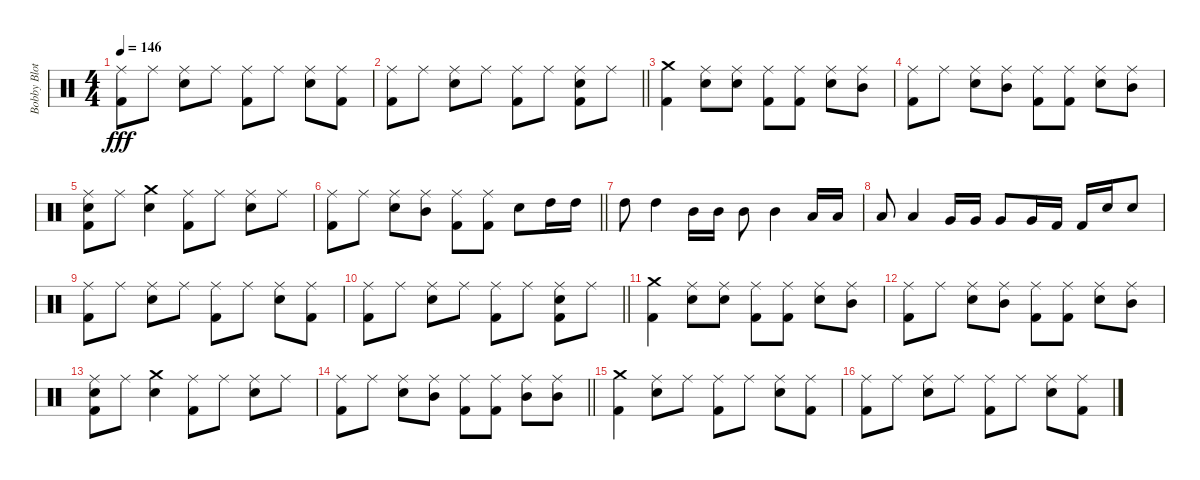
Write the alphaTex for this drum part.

\track ("Bobby Blotzer - Drums" "Bobby Blot") {instrument percussion}
\staff {score}
\articulation defaults
\ts (4 4)
\tempo 146
\clef neutral
\ks c
("Ride (middle)" "Kick (hit) 2").8{dy fff} "Ride (middle)".8 ("Ride (middle)" "Snare (hit) 2").8 "Ride (middle)".8 ("Ride (middle)" "Kick (hit) 2").8 "Ride (middle)".8 ("Ride (middle)" "Snare (hit) 2").8 ("Ride (middle)" "Kick (hit) 2").8 |
\barLineRight lightlight
("Ride (middle)" "Kick (hit) 2").8 "Ride (middle)".8 ("Ride (middle)" "Snare (hit) 2").8 "Ride (middle)".8 ("Ride (middle)" "Kick (hit) 2").8 "Ride (middle)".8 ("Ride (middle)" "Snare (hit) 2" "Kick (hit) 2").8 "Ride (middle)".8 |
("Crash medium (hit)" "Kick (hit) 2").4 ("Ride (middle)" "Snare (hit) 2").8 ("Ride (middle)" "Snare (hit) 2").8 ("Ride (middle)" "Kick (hit) 2").8 ("Ride (middle)" "Kick (hit) 2").8 ("Ride (middle)" "Snare (hit) 2").8 ("Ride (middle)" "Mid Tom (hit)").8 |
("Ride (middle)" "Kick (hit) 2").8 "Ride (middle)".8 ("Ride (middle)" "Snare (hit) 2").8 ("Ride (middle)" "Mid Tom (hit)").8 ("Ride (middle)" "Kick (hit) 2").8 ("Ride (middle)" "Kick (hit) 2").8 ("Ride (middle)" "Snare (hit) 2").8 ("Ride (middle)" "Mid Tom (hit)").8 |
("Ride (middle)" "Snare (hit) 2" "Kick (hit) 2").8 "Ride (middle)".8 ("Crash medium (hit)" "Snare (hit) 2").4 ("Ride (middle)" "Kick (hit) 2").8 "Ride (middle)".8 ("Ride (middle)" "Snare (hit) 2").8 "Ride (middle)".8 |
\barLineRight lightlight
("Ride (middle)" "Kick (hit) 2").8 "Ride (middle)".8 ("Ride (middle)" "Snare (hit) 2").8 ("Ride (middle)" "Mid Tom (hit)").8 ("Ride (middle)" "Kick (hit) 2").8 ("Ride (middle)" "Kick (hit) 2").8 "Snare (hit) 2".8 "High Tom (hit)".16 "High Tom (hit)".16 |
"High Tom (hit)".8{volume 8} "High Tom (hit)".4 "Mid Tom (hit)".16 "Mid Tom (hit)".16 "Mid Tom (hit)".8 "Mid Tom (hit)".4 "Low Tom (hit)".16 "Low Tom (hit)".16 |
"Low Tom (hit)".8 "Low Tom (hit)".4 "Very Low Tom (hit)".16 "Very Low Tom (hit)".16 "Very Low Tom (hit)".8 "Very Low Tom (hit)".16 "Kick (hit) 2".16 "Kick (hit) 2".16 "Snare (hit) 2".16 "Snare (hit) 2".8 |
("Ride (middle)" "Kick (hit) 2").8 "Ride (middle)".8 ("Ride (middle)" "Snare (hit) 2").8 "Ride (middle)".8 ("Ride (middle)" "Kick (hit) 2").8 "Ride (middle)".8 ("Ride (middle)" "Snare (hit) 2").8 ("Ride (middle)" "Kick (hit) 2").8 |
\barLineRight lightlight
("Ride (middle)" "Kick (hit) 2").8 "Ride (middle)".8 ("Ride (middle)" "Snare (hit) 2").8 "Ride (middle)".8 ("Ride (middle)" "Kick (hit) 2").8 "Ride (middle)".8 ("Ride (middle)" "Snare (hit) 2" "Kick (hit) 2").8 "Ride (middle)".8 |
("Crash medium (hit)" "Kick (hit) 2").4 ("Ride (middle)" "Snare (hit) 2").8 ("Ride (middle)" "Snare (hit) 2").8 ("Ride (middle)" "Kick (hit) 2").8 ("Ride (middle)" "Kick (hit) 2").8 ("Ride (middle)" "Snare (hit) 2").8 ("Ride (middle)" "Mid Tom (hit)").8 |
("Ride (middle)" "Kick (hit) 2").8 "Ride (middle)".8 ("Ride (middle)" "Snare (hit) 2").8 ("Ride (middle)" "Mid Tom (hit)").8 ("Ride (middle)" "Kick (hit) 2").8 ("Ride (middle)" "Kick (hit) 2").8 ("Ride (middle)" "Snare (hit) 2").8 ("Ride (middle)" "Mid Tom (hit)").8 |
("Ride (middle)" "Snare (hit) 2" "Kick (hit) 2").8 "Ride (middle)".8 ("Crash medium (hit)" "Snare (hit) 2").4 ("Ride (middle)" "Kick (hit) 2").8 "Ride (middle)".8 ("Ride (middle)" "Snare (hit) 2").8 "Ride (middle)".8 |
\barLineRight lightlight
("Ride (middle)" "Kick (hit) 2").8 "Ride (middle)".8 ("Ride (middle)" "Snare (hit) 2").8 ("Ride (middle)" "Mid Tom (hit)").8 ("Ride (middle)" "Kick (hit) 2").8 ("Ride (middle)" "Kick (hit) 2").8 ("Ride (middle)" "Mid Tom (hit)").8 ("Ride (middle)" "Mid Tom (hit)").8 |
("Crash medium (hit)" "Kick (hit) 2").4{volume 0} ("Ride (middle)" "Snare (hit) 2").8 "Ride (middle)".8 ("Ride (middle)" "Kick (hit) 2").8 "Ride (middle)".8 ("Ride (middle)" "Snare (hit) 2").8 ("Ride (middle)" "Kick (hit) 2").8 |
("Ride (middle)" "Kick (hit) 2").8 "Ride (middle)".8 ("Ride (middle)" "Snare (hit) 2").8 "Ride (middle)".8 ("Ride (middle)" "Kick (hit) 2").8 "Ride (middle)".8 ("Ride (middle)" "Snare (hit) 2").8 ("Ride (middle)" "Kick (hit) 2").8
